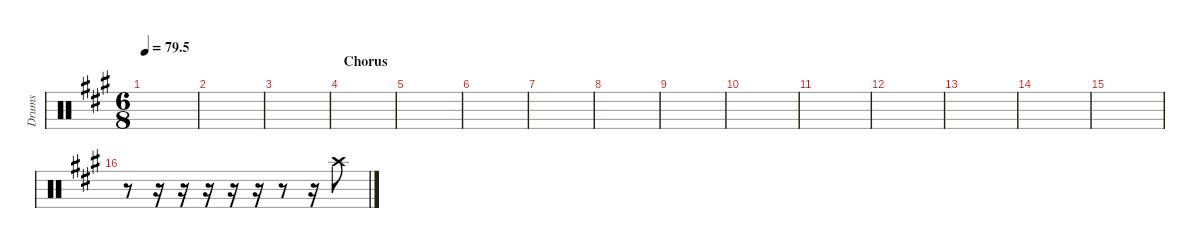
\defaultSystemsLayout 4
\hideDynamics
\bracketExtendMode nobrackets
\otherSystemsTrackNameOrientation horizontal
\track ("Left crash" "Drums") {instrument percussion}
\staff {score}
\articulation defaults
\ts (6 8)
\tempo
79.5
\accidentals auto
\clef neutral
\ottava regular
\simile none
\scale
0.333333
\ks a
|
\scale
0.333333 |
\scale
0.333333 |
\section ("" "Chorus")
\scale
0.333333 |
\scale
0.333333 |
\scale
0.333333 |
\scale
0.333333 |
\scale
0.333333 |
\scale
0.333333 |
\scale
0.333333 |
\scale
0.333333 |
\scale
0.333333 |
\scale
0.333333 |
\scale
0.333333 |
\scale
0.333333 |
\scale
0.333333 r.8 r.16 r.16 r.16 r.16 r.16 r.8 r.16 "Crash high (hit)"{acc forcenatural}.8
